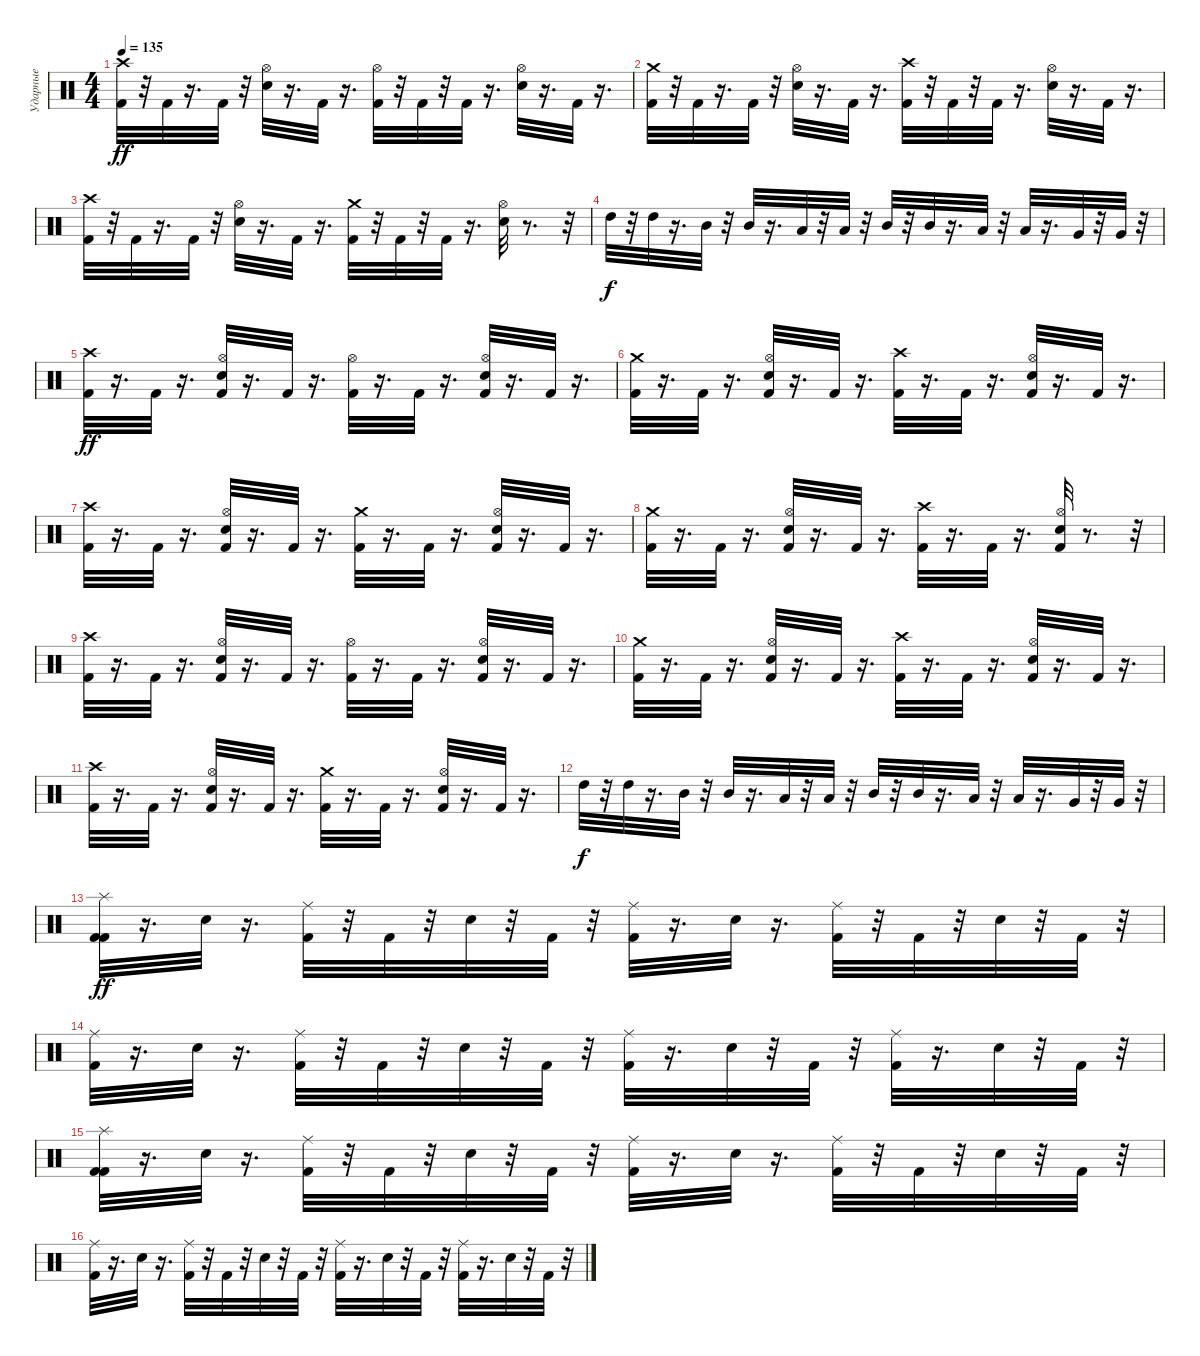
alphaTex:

\track ("Ударные" "Ударные") {instrument percussion}
\staff {score}
\articulation defaults
\ts (4 4)
\tempo 135
\clef neutral
\ks c
("Crash high (hit)" "Kick (hit) 2").32{dy ff} r.32 "Kick (hit) 2".32 r.16{d} "Kick (hit) 2".32 r.32 ("Hi-Hat (open)" "Electric Snare (hit)").32 r.16{d} "Kick (hit) 2".32 r.16{d} ("Hi-Hat (open)" "Kick (hit) 2").32 r.32 "Kick (hit) 2".32 r.32 "Kick (hit) 2".32 r.16{d} ("Hi-Hat (open)" "Electric Snare (hit)").32 r.16{d} "Kick (hit) 2".32 r.16{d} |
("Kick (hit) 2" "Crash medium (hit)").32 r.32 "Kick (hit) 2".32 r.16{d} "Kick (hit) 2".32 r.32 ("Hi-Hat (open)" "Electric Snare (hit)").32 r.16{d} "Kick (hit) 2".32 r.16{d} ("Kick (hit) 2" "Crash high (hit)").32 r.32 "Kick (hit) 2".32 r.32 "Kick (hit) 2".32 r.16{d} ("Hi-Hat (open)" "Electric Snare (hit)").32 r.16{d} "Kick (hit) 2".32 r.16{d} |
("Kick (hit) 2" "Crash high (hit)").32 r.32 "Kick (hit) 2".32 r.16{d} "Kick (hit) 2".32 r.32 ("Electric Snare (hit)" "Hi-Hat (open)").32 r.16{d} "Kick (hit) 2".32 r.16{d} ("Kick (hit) 2" "Crash medium (hit)").32 r.32 "Kick (hit) 2".32 r.32 "Kick (hit) 2".32 r.16{d} ("Electric Snare (hit)" "Hi-Hat (open)").32 r.8{d} r.32 |
"High Tom (hit)".32{dy f} r.32 "High Tom (hit)".32 r.16{d} "Mid Tom (hit)".32 r.32 "Mid Tom (hit)".32 r.16{d} "Low Tom (hit)".32 r.32 "Low Tom (hit)".32 r.32 "Mid Tom (hit)".32 r.32 "Mid Tom (hit)".32 r.16{d} "Low Tom (hit)".32 r.32 "Low Tom (hit)".32 r.16{d} "Very Low Tom (hit)".32 r.32 "Very Low Tom (hit)".32 r.32 |
("Crash high (hit)" "Kick (hit) 2").32{dy ff} r.16{d} "Kick (hit) 2".32 r.16{d} ("Hi-Hat (open)" "Kick (hit) 2" "Electric Snare (hit)").32 r.16{d} "Kick (hit) 2".32 r.16{d} ("Hi-Hat (open)" "Kick (hit) 2").32 r.16{d} "Kick (hit) 2".32 r.16{d} ("Hi-Hat (open)" "Kick (hit) 2" "Electric Snare (hit)").32 r.16{d} "Kick (hit) 2".32 r.16{d} |
("Kick (hit) 2" "Crash medium (hit)").32 r.16{d} "Kick (hit) 2".32 r.16{d} ("Electric Snare (hit)" "Kick (hit) 2" "Hi-Hat (open)").32 r.16{d} "Kick (hit) 2".32 r.16{d} ("Kick (hit) 2" "Crash high (hit)").32 r.16{d} "Kick (hit) 2".32 r.16{d} ("Electric Snare (hit)" "Kick (hit) 2" "Hi-Hat (open)").32 r.16{d} "Kick (hit) 2".32 r.16{d} |
("Crash high (hit)" "Kick (hit) 2").32 r.16{d} "Kick (hit) 2".32 r.16{d} ("Electric Snare (hit)" "Hi-Hat (open)" "Kick (hit) 2").32 r.16{d} "Kick (hit) 2".32 r.16{d} ("Crash medium (hit)" "Kick (hit) 2").32 r.16{d} "Kick (hit) 2".32 r.16{d} ("Electric Snare (hit)" "Hi-Hat (open)" "Kick (hit) 2").32 r.16{d} "Kick (hit) 2".32 r.16{d} |
("Crash medium (hit)" "Kick (hit) 2").32 r.16{d} "Kick (hit) 2".32 r.16{d} ("Hi-Hat (open)" "Electric Snare (hit)" "Kick (hit) 2").32 r.16{d} "Kick (hit) 2".32 r.16{d} ("Crash high (hit)" "Kick (hit) 2").32 r.16{d} "Kick (hit) 2".32 r.16{d} ("Hi-Hat (open)" "Electric Snare (hit)" "Kick (hit) 2").32 r.8{d} r.32 |
("Crash high (hit)" "Kick (hit) 2").32 r.16{d} "Kick (hit) 2".32 r.16{d} ("Kick (hit) 2" "Electric Snare (hit)" "Hi-Hat (open)").32 r.16{d} "Kick (hit) 2".32 r.16{d} ("Hi-Hat (open)" "Kick (hit) 2").32 r.16{d} "Kick (hit) 2".32 r.16{d} ("Electric Snare (hit)" "Kick (hit) 2" "Hi-Hat (open)").32 r.16{d} "Kick (hit) 2".32 r.16{d} |
("Kick (hit) 2" "Crash medium (hit)").32 r.16{d} "Kick (hit) 2".32 r.16{d} ("Electric Snare (hit)" "Hi-Hat (open)" "Kick (hit) 2").32 r.16{d} "Kick (hit) 2".32 r.16{d} ("Kick (hit) 2" "Crash high (hit)").32 r.16{d} "Kick (hit) 2".32 r.16{d} ("Electric Snare (hit)" "Hi-Hat (open)" "Kick (hit) 2").32 r.16{d} "Kick (hit) 2".32 r.16{d} |
("Kick (hit) 2" "Crash high (hit)").32 r.16{d} "Kick (hit) 2".32 r.16{d} ("Electric Snare (hit)" "Hi-Hat (open)" "Kick (hit) 2").32 r.16{d} "Kick (hit) 2".32 r.16{d} ("Crash medium (hit)" "Kick (hit) 2").32 r.16{d} "Kick (hit) 2".32 r.16{d} ("Electric Snare (hit)" "Hi-Hat (open)" "Kick (hit) 2").32 r.16{d} "Kick (hit) 2".32 r.16{d} |
"High Tom (hit)".32{dy f} r.32 "High Tom (hit)".32 r.16{d} "Mid Tom (hit)".32 r.32 "Mid Tom (hit)".32 r.16{d} "Low Tom (hit)".32 r.32 "Low Tom (hit)".32 r.32 "Mid Tom (hit)".32 r.32 "Mid Tom (hit)".32 r.16{d} "Low Tom (hit)".32 r.32 "Low Tom (hit)".32 r.16{d} "Very Low Tom (hit)".32 r.32 "Very Low Tom (hit)".32 r.32 |
("Splash (hit)" "Kick (hit) 2" "Kick (hit) 2").32{dy ff} r.16{d} "Electric Snare (hit)".32 r.16{d} ("Kick (hit) 2" "Ride (middle)").32 r.32 "Kick (hit) 2".32 r.32 "Electric Snare (hit)".32 r.32 "Kick (hit) 2".32 r.32 ("Kick (hit) 2" "Ride (middle)").32 r.16{d} "Electric Snare (hit)".32 r.16{d} ("Ride (middle)" "Kick (hit) 2").32 r.32 "Kick (hit) 2".32 r.32 "Electric Snare (hit)".32 r.32 "Kick (hit) 2".32 r.32 |
("Ride (middle)" "Kick (hit) 2").32 r.16{d} "Electric Snare (hit)".32 r.16{d} ("Ride (middle)" "Kick (hit) 2").32 r.32 "Kick (hit) 2".32 r.32 "Electric Snare (hit)".32 r.32 "Kick (hit) 2".32 r.32 ("Kick (hit) 2" "Ride (middle)").32 r.16{d} "Electric Snare (hit)".32 r.32 "Kick (hit) 2".32 r.32 ("Ride (middle)" "Kick (hit) 2").32 r.16{d} "Electric Snare (hit)".32 r.32 "Kick (hit) 2".32 r.32 |
("Kick (hit) 2" "Kick (hit) 2" "Splash (hit)").32 r.16{d} "Electric Snare (hit)".32 r.16{d} ("Ride (middle)" "Kick (hit) 2").32 r.32 "Kick (hit) 2".32 r.32 "Electric Snare (hit)".32 r.32 "Kick (hit) 2".32 r.32 ("Ride (middle)" "Kick (hit) 2").32 r.16{d} "Electric Snare (hit)".32 r.16{d} ("Ride (middle)" "Kick (hit) 2").32 r.32 "Kick (hit) 2".32 r.32 "Electric Snare (hit)".32 r.32 "Kick (hit) 2".32 r.32 |
("Ride (middle)" "Kick (hit) 2").32 r.16{d} "Electric Snare (hit)".32 r.16{d} ("Ride (middle)" "Kick (hit) 2").32 r.32 "Kick (hit) 2".32 r.32 "Electric Snare (hit)".32 r.32 "Kick (hit) 2".32 r.32 ("Ride (middle)" "Kick (hit) 2").32 r.16{d} "Electric Snare (hit)".32 r.32 "Kick (hit) 2".32 r.32 ("Ride (middle)" "Kick (hit) 2").32 r.16{d} "Electric Snare (hit)".32 r.32 "Kick (hit) 2".32 r.32
